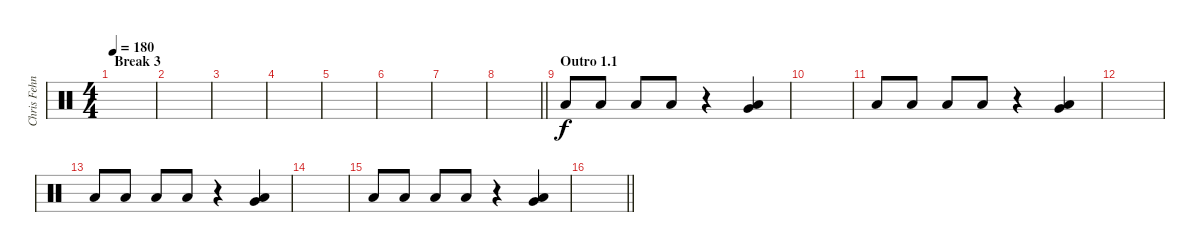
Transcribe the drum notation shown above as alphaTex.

\track ("Chris Fehn" "Chris Fehn") {instrument percussion}
\staff {score}
\articulation defaults
\ts (4 4)
\section ("" "Break 3")
\tempo 180
\clef neutral
\ks c
|
|
|
|
|
|
|
\barLineRight lightlight
|
\section ("" "Outro 1.1")
"Low Floor Tom (hit)".8 "Low Floor Tom (hit)".8 "Low Floor Tom (hit)".8 "Low Floor Tom (hit)".8 r.4 ("Very Low Tom (hit)" "Low Floor Tom (hit)").4 |
|
"Low Floor Tom (hit)".8 "Low Floor Tom (hit)".8 "Low Floor Tom (hit)".8 "Low Floor Tom (hit)".8 r.4 ("Very Low Tom (hit)" "Low Floor Tom (hit)").4 |
|
"Low Floor Tom (hit)".8 "Low Floor Tom (hit)".8 "Low Floor Tom (hit)".8 "Low Floor Tom (hit)".8 r.4 ("Very Low Tom (hit)" "Low Floor Tom (hit)").4 |
|
"Low Floor Tom (hit)".8 "Low Floor Tom (hit)".8 "Low Floor Tom (hit)".8 "Low Floor Tom (hit)".8 r.4 ("Very Low Tom (hit)" "Low Floor Tom (hit)").4 |
\barLineRight lightlight
